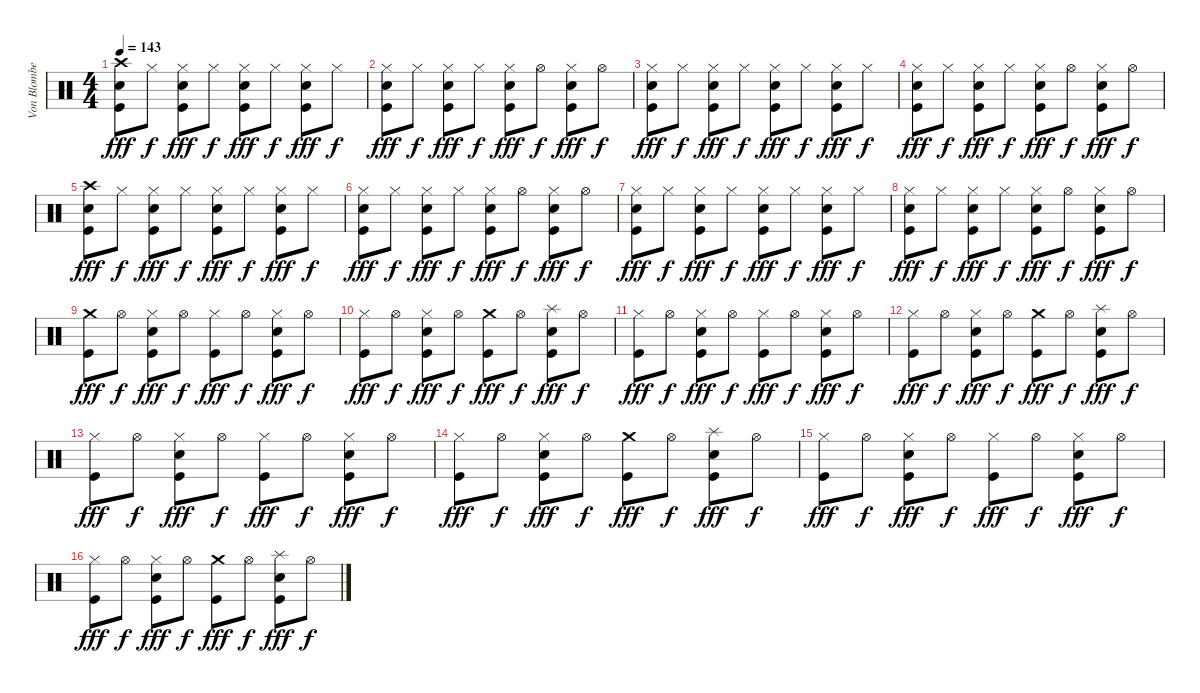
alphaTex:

\track ("Von Blomberg" "Von Blombe") {instrument percussion}
\staff {score}
\articulation defaults
\ts (4 4)
\tempo 143
\clef neutral
\ks c
("Crash high (hit)" "Kick (hit)" "Electric Snare (hit)").8{dy fff} "Hi-Hat (closed)".8{dy f} ("Hi-Hat (closed)" "Kick (hit)" "Electric Snare (hit)").8{dy fff} "Hi-Hat (closed)".8{dy f} ("Hi-Hat (closed)" "Electric Snare (hit)" "Kick (hit)").8{dy fff} "Hi-Hat (closed)".8{dy f} ("Hi-Hat (closed)" "Kick (hit)" "Electric Snare (hit)").8{dy fff} "Hi-Hat (closed)".8{dy f} |
("Hi-Hat (closed)" "Kick (hit)" "Electric Snare (hit)").8{dy fff} "Hi-Hat (closed)".8{dy f} ("Hi-Hat (closed)" "Kick (hit)" "Electric Snare (hit)").8{dy fff} "Hi-Hat (closed)".8{dy f} ("Hi-Hat (closed)" "Kick (hit)" "Electric Snare (hit)").8{dy fff} "Hi-Hat (open)".8{dy f} ("Hi-Hat (closed)" "Kick (hit)" "Electric Snare (hit)").8{dy fff} "Hi-Hat (open)".8{dy f} |
("Hi-Hat (closed)" "Electric Snare (hit)" "Kick (hit)").8{dy fff} "Hi-Hat (closed)".8{dy f} ("Hi-Hat (closed)" "Electric Snare (hit)" "Kick (hit)").8{dy fff} "Hi-Hat (closed)".8{dy f} ("Hi-Hat (closed)" "Electric Snare (hit)" "Kick (hit)").8{dy fff} "Hi-Hat (closed)".8{dy f} ("Hi-Hat (closed)" "Electric Snare (hit)" "Kick (hit)").8{dy fff} "Hi-Hat (closed)".8{dy f} |
("Hi-Hat (closed)" "Electric Snare (hit)" "Kick (hit)").8{dy fff} "Hi-Hat (closed)".8{dy f} ("Hi-Hat (closed)" "Electric Snare (hit)" "Kick (hit)").8{dy fff} "Hi-Hat (closed)".8{dy f} ("Hi-Hat (closed)" "Electric Snare (hit)" "Kick (hit)").8{dy fff} "Hi-Hat (open)".8{dy f} ("Hi-Hat (closed)" "Electric Snare (hit)" "Kick (hit)").8{dy fff} "Hi-Hat (open)".8{dy f} |
("Crash high (hit)" "Kick (hit)" "Electric Snare (hit)").8{dy fff} "Hi-Hat (closed)".8{dy f} ("Hi-Hat (closed)" "Kick (hit)" "Electric Snare (hit)").8{dy fff} "Hi-Hat (closed)".8{dy f} ("Hi-Hat (closed)" "Kick (hit)" "Electric Snare (hit)").8{dy fff} "Hi-Hat (closed)".8{dy f} ("Hi-Hat (closed)" "Kick (hit)" "Electric Snare (hit)").8{dy fff} "Hi-Hat (closed)".8{dy f} |
("Hi-Hat (closed)" "Kick (hit)" "Electric Snare (hit)").8{dy fff} "Hi-Hat (closed)".8{dy f} ("Hi-Hat (closed)" "Kick (hit)" "Electric Snare (hit)").8{dy fff} "Hi-Hat (closed)".8{dy f} ("Hi-Hat (closed)" "Kick (hit)" "Electric Snare (hit)").8{dy fff} "Hi-Hat (open)".8{dy f} ("Hi-Hat (closed)" "Kick (hit)" "Electric Snare (hit)").8{dy fff} "Hi-Hat (open)".8{dy f} |
("Hi-Hat (closed)" "Electric Snare (hit)" "Kick (hit)").8{dy fff} "Hi-Hat (closed)".8{dy f} ("Hi-Hat (closed)" "Electric Snare (hit)" "Kick (hit)").8{dy fff} "Hi-Hat (closed)".8{dy f} ("Hi-Hat (closed)" "Electric Snare (hit)" "Kick (hit)").8{dy fff} "Hi-Hat (closed)".8{dy f} ("Hi-Hat (closed)" "Electric Snare (hit)" "Kick (hit)").8{dy fff} "Hi-Hat (closed)".8{dy f} |
("Hi-Hat (closed)" "Electric Snare (hit)" "Kick (hit)").8{dy fff} "Hi-Hat (closed)".8{dy f} ("Hi-Hat (closed)" "Electric Snare (hit)" "Kick (hit)").8{dy fff} "Hi-Hat (closed)".8{dy f} ("Hi-Hat (closed)" "Electric Snare (hit)" "Kick (hit)").8{dy fff} "Hi-Hat (open)".8{dy f} ("Hi-Hat (closed)" "Electric Snare (hit)" "Kick (hit)").8{dy fff} "Hi-Hat (open)".8{dy f} |
("Crash medium (hit)" "Kick (hit)").8{dy fff} "Hi-Hat (open)".8{dy f} ("Hi-Hat (closed)" "Electric Snare (hit)" "Kick (hit)").8{dy fff} "Hi-Hat (open)".8{dy f} ("Hi-Hat (closed)" "Kick (hit)").8{dy fff} "Hi-Hat (open)".8{dy f} ("Hi-Hat (closed)" "Electric Snare (hit)" "Kick (hit)").8{dy fff} "Hi-Hat (open)".8{dy f} |
("Hi-Hat (closed)" "Kick (hit)").8{dy fff} "Hi-Hat (open)".8{dy f} ("Hi-Hat (closed)" "Electric Snare (hit)" "Kick (hit)").8{dy fff} "Hi-Hat (open)".8{dy f} ("Crash medium (hit)" "Kick (hit)").8{dy fff} "Hi-Hat (open)".8{dy f} ("Splash (hit)" "Electric Snare (hit)" "Kick (hit)").8{dy fff} "Hi-Hat (open)".8{dy f} |
("Hi-Hat (closed)" "Kick (hit)").8{dy fff} "Hi-Hat (open)".8{dy f} ("Hi-Hat (closed)" "Electric Snare (hit)" "Kick (hit)").8{dy fff} "Hi-Hat (open)".8{dy f} ("Hi-Hat (closed)" "Kick (hit)").8{dy fff} "Hi-Hat (open)".8{dy f} ("Hi-Hat (closed)" "Electric Snare (hit)" "Kick (hit)").8{dy fff} "Hi-Hat (open)".8{dy f} |
("Hi-Hat (closed)" "Kick (hit)").8{dy fff} "Hi-Hat (open)".8{dy f} ("Hi-Hat (closed)" "Electric Snare (hit)" "Kick (hit)").8{dy fff} "Hi-Hat (open)".8{dy f} ("Crash medium (hit)" "Kick (hit)").8{dy fff} "Hi-Hat (open)".8{dy f} ("Splash (hit)" "Electric Snare (hit)" "Kick (hit)").8{dy fff} "Hi-Hat (open)".8{dy f} |
("Hi-Hat (closed)" "Kick (hit)").8{dy fff} "Hi-Hat (open)".8{dy f} ("Hi-Hat (closed)" "Electric Snare (hit)" "Kick (hit)").8{dy fff} "Hi-Hat (open)".8{dy f} ("Hi-Hat (closed)" "Kick (hit)").8{dy fff} "Hi-Hat (open)".8{dy f} ("Hi-Hat (closed)" "Electric Snare (hit)" "Kick (hit)").8{dy fff} "Hi-Hat (open)".8{dy f} |
("Hi-Hat (closed)" "Kick (hit)").8{dy fff} "Hi-Hat (open)".8{dy f} ("Hi-Hat (closed)" "Electric Snare (hit)" "Kick (hit)").8{dy fff} "Hi-Hat (open)".8{dy f} ("Crash medium (hit)" "Kick (hit)").8{dy fff} "Hi-Hat (open)".8{dy f} ("Splash (hit)" "Electric Snare (hit)" "Kick (hit)").8{dy fff} "Hi-Hat (open)".8{dy f} |
("Hi-Hat (closed)" "Kick (hit)").8{dy fff} "Hi-Hat (open)".8{dy f} ("Hi-Hat (closed)" "Electric Snare (hit)" "Kick (hit)").8{dy fff} "Hi-Hat (open)".8{dy f} ("Hi-Hat (closed)" "Kick (hit)").8{dy fff} "Hi-Hat (open)".8{dy f} ("Hi-Hat (closed)" "Electric Snare (hit)" "Kick (hit)").8{dy fff} "Hi-Hat (open)".8{dy f} |
("Hi-Hat (closed)" "Kick (hit)").8{dy fff} "Hi-Hat (open)".8{dy f} ("Hi-Hat (closed)" "Electric Snare (hit)" "Kick (hit)").8{dy fff} "Hi-Hat (open)".8{dy f} ("Crash medium (hit)" "Kick (hit)").8{dy fff} "Hi-Hat (open)".8{dy f} ("Splash (hit)" "Electric Snare (hit)" "Kick (hit)").8{dy fff} "Hi-Hat (open)".8{dy f}
